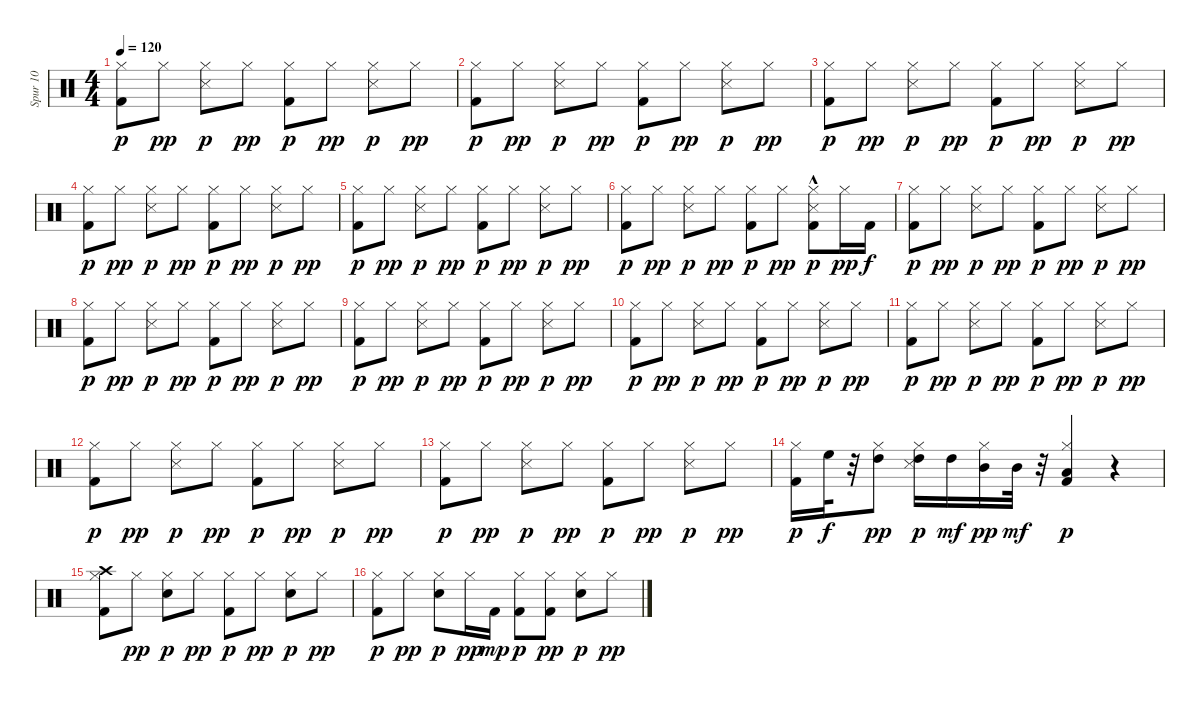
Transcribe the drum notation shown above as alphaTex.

\track ("Spur 10" "Spur 10") {instrument percussion}
\staff {score}
\articulation defaults
\ts (4 4)
\tempo 120
\clef neutral
\ks c
("Kick (hit) 2" "Hi-Hat (closed)").8{dy p} "Hi-Hat (closed)".8{dy pp} ("Snare (side stick) 3" "Hi-Hat (closed)").8{dy p} "Hi-Hat (closed)".8{dy pp} ("Kick (hit) 2" "Hi-Hat (closed)").8{dy p} "Hi-Hat (closed)".8{dy pp} ("Snare (side stick) 3" "Hi-Hat (closed)").8{dy p} "Hi-Hat (closed)".8{dy pp} |
("Kick (hit) 2" "Hi-Hat (closed)").8{dy p} "Hi-Hat (closed)".8{dy pp} ("Snare (side stick) 3" "Hi-Hat (closed)").8{dy p} "Hi-Hat (closed)".8{dy pp} ("Kick (hit) 2" "Hi-Hat (closed)").8{dy p} "Hi-Hat (closed)".8{dy pp} ("Snare (side stick) 3" "Hi-Hat (closed)").8{dy p} "Hi-Hat (closed)".8{dy pp} |
("Kick (hit) 2" "Hi-Hat (closed)").8{dy p} "Hi-Hat (closed)".8{dy pp} ("Snare (side stick) 3" "Hi-Hat (closed)").8{dy p} "Hi-Hat (closed)".8{dy pp} ("Kick (hit) 2" "Hi-Hat (closed)").8{dy p} "Hi-Hat (closed)".8{dy pp} ("Snare (side stick) 3" "Hi-Hat (closed)").8{dy p} "Hi-Hat (closed)".8{dy pp} |
("Kick (hit) 2" "Hi-Hat (closed)").8{dy p} "Hi-Hat (closed)".8{dy pp} ("Snare (side stick) 3" "Hi-Hat (closed)").8{dy p} "Hi-Hat (closed)".8{dy pp} ("Kick (hit) 2" "Hi-Hat (closed)").8{dy p} "Hi-Hat (closed)".8{dy pp} ("Snare (side stick) 3" "Hi-Hat (closed)").8{dy p} "Hi-Hat (closed)".8{dy pp} |
("Kick (hit) 2" "Hi-Hat (closed)").8{dy p} "Hi-Hat (closed)".8{dy pp} ("Snare (side stick) 3" "Hi-Hat (closed)").8{dy p} "Hi-Hat (closed)".8{dy pp} ("Kick (hit) 2" "Hi-Hat (closed)").8{dy p} "Hi-Hat (closed)".8{dy pp} ("Snare (side stick) 3" "Hi-Hat (closed)").8{dy p} "Hi-Hat (closed)".8{dy pp} |
("Kick (hit) 2" "Hi-Hat (closed)").8{dy p} "Hi-Hat (closed)".8{dy pp} ("Snare (side stick) 3" "Hi-Hat (closed)").8{dy p} "Hi-Hat (closed)".8{dy pp} ("Kick (hit) 2" "Hi-Hat (closed)").8{dy p} "Hi-Hat (closed)".8{dy pp} ("Kick (hit) 2"{hac} "Snare (side stick) 3" "Hi-Hat (closed)").8{dy p} "Hi-Hat (closed)".16{dy pp} "Kick (hit) 2".16{dy f} |
("Kick (hit) 2" "Hi-Hat (closed)").8{dy p} "Hi-Hat (closed)".8{dy pp} ("Snare (side stick) 3" "Hi-Hat (closed)").8{dy p} "Hi-Hat (closed)".8{dy pp} ("Kick (hit) 2" "Hi-Hat (closed)").8{dy p} "Hi-Hat (closed)".8{dy pp} ("Snare (side stick) 3" "Hi-Hat (closed)").8{dy p} "Hi-Hat (closed)".8{dy pp} |
("Kick (hit) 2" "Hi-Hat (closed)").8{dy p} "Hi-Hat (closed)".8{dy pp} ("Snare (side stick) 3" "Hi-Hat (closed)").8{dy p} "Hi-Hat (closed)".8{dy pp} ("Kick (hit) 2" "Hi-Hat (closed)").8{dy p} "Hi-Hat (closed)".8{dy pp} ("Snare (side stick) 3" "Hi-Hat (closed)").8{dy p} "Hi-Hat (closed)".8{dy pp} |
("Kick (hit) 2" "Hi-Hat (closed)").8{dy p} "Hi-Hat (closed)".8{dy pp} ("Snare (side stick) 3" "Hi-Hat (closed)").8{dy p} "Hi-Hat (closed)".8{dy pp} ("Kick (hit) 2" "Hi-Hat (closed)").8{dy p} "Hi-Hat (closed)".8{dy pp} ("Snare (side stick) 3" "Hi-Hat (closed)").8{dy p} "Hi-Hat (closed)".8{dy pp} |
("Kick (hit) 2" "Hi-Hat (closed)").8{dy p} "Hi-Hat (closed)".8{dy pp} ("Snare (side stick) 3" "Hi-Hat (closed)").8{dy p} "Hi-Hat (closed)".8{dy pp} ("Kick (hit) 2" "Hi-Hat (closed)").8{dy p} "Hi-Hat (closed)".8{dy pp} ("Snare (side stick) 3" "Hi-Hat (closed)").8{dy p} "Hi-Hat (closed)".8{dy pp} |
("Kick (hit) 2" "Hi-Hat (closed)").8{dy p} "Hi-Hat (closed)".8{dy pp} ("Snare (side stick) 3" "Hi-Hat (closed)").8{dy p} "Hi-Hat (closed)".8{dy pp} ("Kick (hit) 2" "Hi-Hat (closed)").8{dy p} "Hi-Hat (closed)".8{dy pp} ("Snare (side stick) 3" "Hi-Hat (closed)").8{dy p} "Hi-Hat (closed)".8{dy pp} |
("Kick (hit) 2" "Hi-Hat (closed)").8{dy p} "Hi-Hat (closed)".8{dy pp} ("Snare (side stick) 3" "Hi-Hat (closed)").8{dy p} "Hi-Hat (closed)".8{dy pp} ("Kick (hit) 2" "Hi-Hat (closed)").8{dy p} "Hi-Hat (closed)".8{dy pp} ("Snare (side stick) 3" "Hi-Hat (closed)").8{dy p} "Hi-Hat (closed)".8{dy pp} |
("Kick (hit) 2" "Hi-Hat (closed)").8{dy p} "Hi-Hat (closed)".8{dy pp} ("Snare (side stick) 3" "Hi-Hat (closed)").8{dy p} "Hi-Hat (closed)".8{dy pp} ("Kick (hit) 2" "Hi-Hat (closed)").8{dy p} "Hi-Hat (closed)".8{dy pp} ("Snare (side stick) 3" "Hi-Hat (closed)").8{dy p} "Hi-Hat (closed)".8{dy pp} |
("Kick (hit) 2" "Hi-Hat (closed)").16{dy p} "High Floor Tom (hit)".32{dy f} r.32 ("Hi-Hat (closed)" "High Tom (hit)").8{dy pp} ("Snare (side stick) 3" "Hi-Hat (closed)" "High Tom (hit)").16{dy p} "High Tom (hit)".16{dy mf} ("Hi-Hat (closed)" "Mid Tom (hit)").16{dy pp} "Mid Tom (hit)".32{dy mf} r.32 ("Kick (hit) 2" "Hi-Hat (closed)" "Low Tom (hit)").4{dy p} r.4 |
("Kick (hit) 2" "Hi-Hat (closed)" "Crash high (hit)").8 "Hi-Hat (closed)".8{dy pp} ("Snare (hit) 2" "Hi-Hat (closed)").8{dy p} "Hi-Hat (closed)".8{dy pp} ("Kick (hit) 2" "Hi-Hat (closed)").8{dy p} "Hi-Hat (closed)".8{dy pp} ("Snare (hit) 2" "Hi-Hat (closed)").8{dy p} "Hi-Hat (closed)".8{dy pp} |
("Kick (hit) 2" "Hi-Hat (closed)").8{dy p} "Hi-Hat (closed)".8{dy pp} ("Snare (hit) 2" "Hi-Hat (closed)").8{dy p} "Hi-Hat (closed)".16{dy pp} "Kick (hit) 2".16{dy mp} ("Kick (hit) 2" "Hi-Hat (closed)").8{dy p} ("Kick (hit) 2" "Hi-Hat (closed)").8{dy pp} ("Snare (hit) 2" "Hi-Hat (closed)").8{dy p} "Hi-Hat (closed)".8{dy pp}
